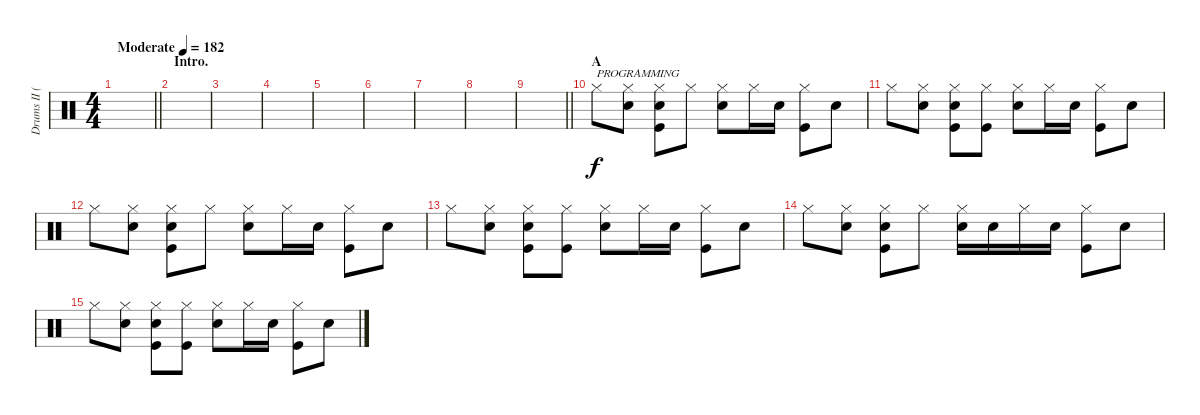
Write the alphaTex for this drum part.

\track ("Drums II (Tainaka Ritsu)" "Drums II (") {instrument percussion}
\staff {score}
\articulation defaults
\ts (4 4)
\tempo (182 "Moderate")
\clef neutral
\barLineRight lightlight
\ks c
|
\section ("" "Intro.")
|
|
|
|
|
|
|
\barLineRight lightlight
|
\section ("" "A")
"Hi-Hat (closed)".8{txt "PROGRAMMING"} ("Hi-Hat (closed)" "Snare (hit) 2").8 ("Hi-Hat (closed)" "Snare (hit) 2" "Kick (hit)").8 "Hi-Hat (closed)".8 ("Hi-Hat (closed)" "Snare (hit) 2").8 "Hi-Hat (closed)".16 "Snare (hit) 2".16 ("Hi-Hat (closed)" "Kick (hit)").8 "Snare (hit) 2".8 |
"Hi-Hat (closed)".8 ("Hi-Hat (closed)" "Snare (hit) 2").8 ("Hi-Hat (closed)" "Snare (hit) 2" "Kick (hit)").8 ("Hi-Hat (closed)" "Kick (hit)").8 ("Hi-Hat (closed)" "Snare (hit) 2").8 "Hi-Hat (closed)".16 "Snare (hit) 2".16 ("Hi-Hat (closed)" "Kick (hit)").8 "Snare (hit) 2".8 |
"Hi-Hat (closed)".8 ("Hi-Hat (closed)" "Snare (hit) 2").8 ("Hi-Hat (closed)" "Snare (hit) 2" "Kick (hit)").8 "Hi-Hat (closed)".8 ("Hi-Hat (closed)" "Snare (hit) 2").8 "Hi-Hat (closed)".16 "Snare (hit) 2".16 ("Hi-Hat (closed)" "Kick (hit)").8 "Snare (hit) 2".8 |
"Hi-Hat (closed)".8 ("Hi-Hat (closed)" "Snare (hit) 2").8 ("Hi-Hat (closed)" "Snare (hit) 2" "Kick (hit)").8 ("Hi-Hat (closed)" "Kick (hit)").8 ("Hi-Hat (closed)" "Snare (hit) 2").8 "Hi-Hat (closed)".16 "Snare (hit) 2".16 ("Hi-Hat (closed)" "Kick (hit)").8 "Snare (hit) 2".8 |
"Hi-Hat (closed)".8 ("Hi-Hat (closed)" "Snare (hit) 2").8 ("Hi-Hat (closed)" "Snare (hit) 2" "Kick (hit)").8 "Hi-Hat (closed)".8 ("Hi-Hat (closed)" "Snare (hit) 2").16 "Snare (hit) 2".16 "Hi-Hat (closed)".16 "Snare (hit) 2".16 ("Hi-Hat (closed)" "Kick (hit)").8 "Snare (hit) 2".8 |
"Hi-Hat (closed)".8 ("Hi-Hat (closed)" "Snare (hit) 2").8 ("Hi-Hat (closed)" "Snare (hit) 2" "Kick (hit)").8 ("Hi-Hat (closed)" "Kick (hit)").8 ("Hi-Hat (closed)" "Snare (hit) 2").8 "Hi-Hat (closed)".16 "Snare (hit) 2".16 ("Hi-Hat (closed)" "Kick (hit)").8 "Snare (hit) 2".8
